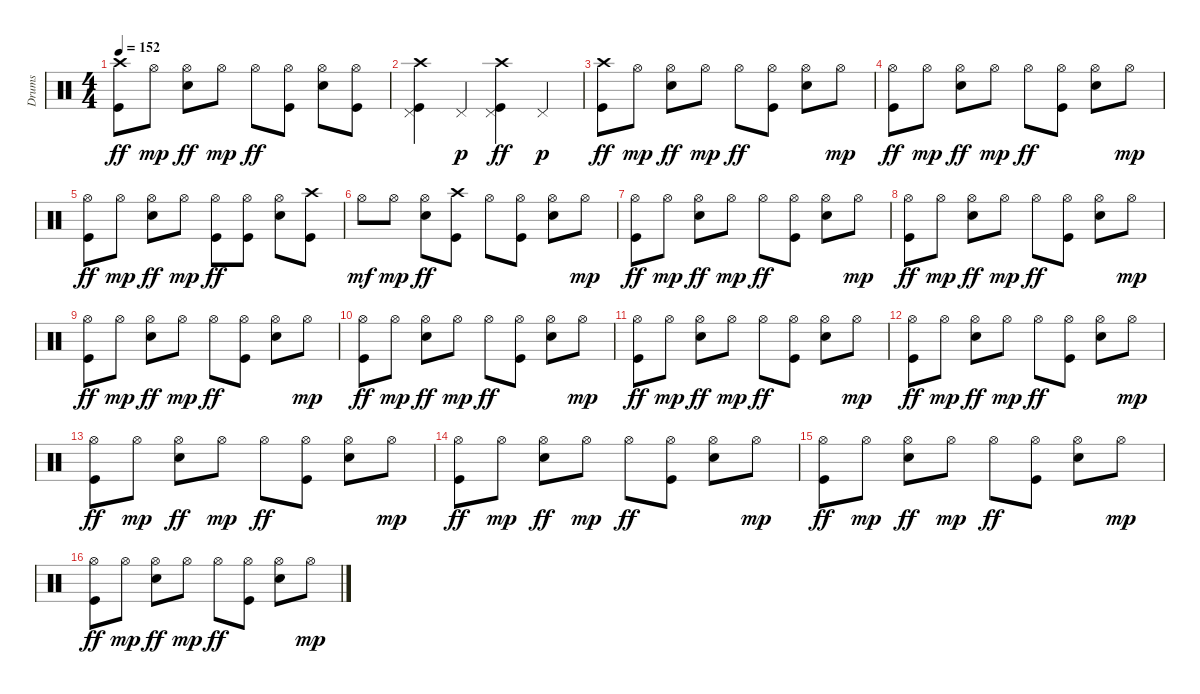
\track ("Drums" "Drums") {instrument percussion}
\staff {score}
\articulation defaults
\ts (4 4)
\tempo 152
\clef neutral
\ks c
("Crash high (hit)" "Kick (hit)").8{dy ff} "Hi-Hat (open)".8{dy mp} ("Hi-Hat (open)" "Snare (hit) 2").8{dy ff} "Hi-Hat (open)".8{dy mp} "Hi-Hat (open)".8{dy ff} ("Hi-Hat (open)" "Kick (hit)").8 ("Hi-Hat (open)" "Snare (hit) 2").8 ("Hi-Hat (open)" "Kick (hit)").8 |
("Crash high (hit)" "Pedal Hi-Hat (hit)" "Kick (hit)").4 "Pedal Hi-Hat (hit)".4{dy p} ("Crash high (hit)" "Pedal Hi-Hat (hit)" "Kick (hit)").4{dy ff} "Pedal Hi-Hat (hit)".4{dy p} |
("Crash high (hit)" "Kick (hit)").8{dy ff} "Hi-Hat (open)".8{dy mp} ("Hi-Hat (open)" "Snare (hit) 2").8{dy ff} "Hi-Hat (open)".8{dy mp} "Hi-Hat (open)".8{dy ff} ("Hi-Hat (open)" "Kick (hit)").8 ("Hi-Hat (open)" "Snare (hit) 2").8 "Hi-Hat (open)".8{dy mp} |
("Hi-Hat (open)" "Kick (hit)").8{dy ff} "Hi-Hat (open)".8{dy mp} ("Hi-Hat (open)" "Snare (hit) 2").8{dy ff} "Hi-Hat (open)".8{dy mp} "Hi-Hat (open)".8{dy ff} ("Hi-Hat (open)" "Kick (hit)").8 ("Hi-Hat (open)" "Snare (hit) 2").8 "Hi-Hat (open)".8{dy mp} |
("Hi-Hat (open)" "Kick (hit)").8{dy ff} "Hi-Hat (open)".8{dy mp} ("Hi-Hat (open)" "Snare (hit) 2").8{dy ff} "Hi-Hat (open)".8{dy mp} ("Hi-Hat (open)" "Kick (hit)").8{dy ff} ("Hi-Hat (open)" "Kick (hit)").8 ("Hi-Hat (open)" "Snare (hit) 2").8 ("Crash high (hit)" "Kick (hit)").8 |
"Hi-Hat (open)".8{dy mf} "Hi-Hat (open)".8{dy mp} ("Hi-Hat (open)" "Snare (hit) 2").8{dy ff} ("Crash high (hit)" "Kick (hit)").8 "Hi-Hat (open)".8 ("Hi-Hat (open)" "Kick (hit)").8 ("Hi-Hat (open)" "Snare (hit) 2").8 "Hi-Hat (open)".8{dy mp} |
("Hi-Hat (open)" "Kick (hit)").8{dy ff} "Hi-Hat (open)".8{dy mp} ("Hi-Hat (open)" "Snare (hit) 2").8{dy ff} "Hi-Hat (open)".8{dy mp} "Hi-Hat (open)".8{dy ff} ("Hi-Hat (open)" "Kick (hit)").8 ("Hi-Hat (open)" "Snare (hit) 2").8 "Hi-Hat (open)".8{dy mp} |
("Hi-Hat (open)" "Kick (hit)").8{dy ff} "Hi-Hat (open)".8{dy mp} ("Hi-Hat (open)" "Snare (hit) 2").8{dy ff} "Hi-Hat (open)".8{dy mp} "Hi-Hat (open)".8{dy ff} ("Hi-Hat (open)" "Kick (hit)").8 ("Hi-Hat (open)" "Snare (hit) 2").8 "Hi-Hat (open)".8{dy mp} |
("Hi-Hat (open)" "Kick (hit)").8{dy ff} "Hi-Hat (open)".8{dy mp} ("Hi-Hat (open)" "Snare (hit) 2").8{dy ff} "Hi-Hat (open)".8{dy mp} "Hi-Hat (open)".8{dy ff} ("Hi-Hat (open)" "Kick (hit)").8 ("Hi-Hat (open)" "Snare (hit) 2").8 "Hi-Hat (open)".8{dy mp} |
("Hi-Hat (open)" "Kick (hit)").8{dy ff} "Hi-Hat (open)".8{dy mp} ("Hi-Hat (open)" "Snare (hit) 2").8{dy ff} "Hi-Hat (open)".8{dy mp} "Hi-Hat (open)".8{dy ff} ("Hi-Hat (open)" "Kick (hit)").8 ("Hi-Hat (open)" "Snare (hit) 2").8 "Hi-Hat (open)".8{dy mp} |
("Hi-Hat (open)" "Kick (hit)").8{dy ff} "Hi-Hat (open)".8{dy mp} ("Hi-Hat (open)" "Snare (hit) 2").8{dy ff} "Hi-Hat (open)".8{dy mp} "Hi-Hat (open)".8{dy ff} ("Hi-Hat (open)" "Kick (hit)").8 ("Hi-Hat (open)" "Snare (hit) 2").8 "Hi-Hat (open)".8{dy mp} |
("Hi-Hat (open)" "Kick (hit)").8{dy ff} "Hi-Hat (open)".8{dy mp} ("Hi-Hat (open)" "Snare (hit) 2").8{dy ff} "Hi-Hat (open)".8{dy mp} "Hi-Hat (open)".8{dy ff} ("Hi-Hat (open)" "Kick (hit)").8 ("Hi-Hat (open)" "Snare (hit) 2").8 "Hi-Hat (open)".8{dy mp} |
("Hi-Hat (open)" "Kick (hit)").8{dy ff} "Hi-Hat (open)".8{dy mp} ("Hi-Hat (open)" "Snare (hit) 2").8{dy ff} "Hi-Hat (open)".8{dy mp} "Hi-Hat (open)".8{dy ff} ("Hi-Hat (open)" "Kick (hit)").8 ("Hi-Hat (open)" "Snare (hit) 2").8 "Hi-Hat (open)".8{dy mp} |
("Hi-Hat (open)" "Kick (hit)").8{dy ff} "Hi-Hat (open)".8{dy mp} ("Hi-Hat (open)" "Snare (hit) 2").8{dy ff} "Hi-Hat (open)".8{dy mp} "Hi-Hat (open)".8{dy ff} ("Hi-Hat (open)" "Kick (hit)").8 ("Hi-Hat (open)" "Snare (hit) 2").8 "Hi-Hat (open)".8{dy mp} |
("Hi-Hat (open)" "Kick (hit)").8{dy ff} "Hi-Hat (open)".8{dy mp} ("Hi-Hat (open)" "Snare (hit) 2").8{dy ff} "Hi-Hat (open)".8{dy mp} "Hi-Hat (open)".8{dy ff} ("Hi-Hat (open)" "Kick (hit)").8 ("Hi-Hat (open)" "Snare (hit) 2").8 "Hi-Hat (open)".8{dy mp} |
("Hi-Hat (open)" "Kick (hit)").8{dy ff} "Hi-Hat (open)".8{dy mp} ("Hi-Hat (open)" "Snare (hit) 2").8{dy ff} "Hi-Hat (open)".8{dy mp} "Hi-Hat (open)".8{dy ff} ("Hi-Hat (open)" "Kick (hit)").8 ("Hi-Hat (open)" "Snare (hit) 2").8 "Hi-Hat (open)".8{dy mp}
